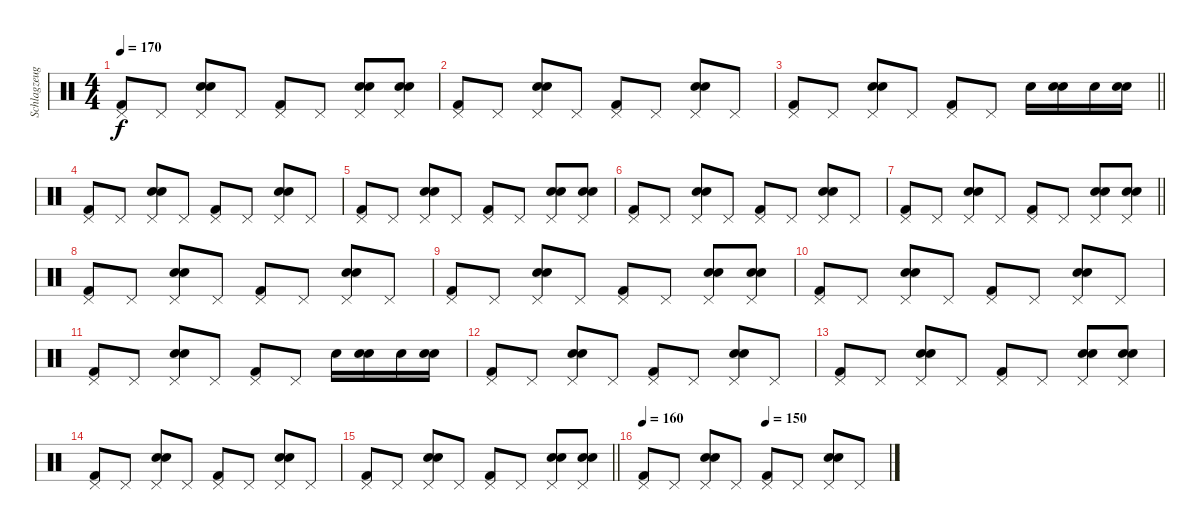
\track ("Schlagzeug" "Schlagzeug") {instrument percussion}
\staff {score}
\articulation defaults
\ts (4 4)
\tempo 170
\clef neutral
\ks c
("Pedal Hi-Hat (hit)" "Kick (hit) 2").8{dy f} "Pedal Hi-Hat (hit)".8 ("Pedal Hi-Hat (hit)" "Snare (hit) 2" "Snare (hit) 2").8 "Pedal Hi-Hat (hit)".8 ("Pedal Hi-Hat (hit)" "Kick (hit) 2").8 "Pedal Hi-Hat (hit)".8 ("Pedal Hi-Hat (hit)" "Snare (hit) 2" "Snare (hit) 2").8 ("Pedal Hi-Hat (hit)" "Snare (hit) 2" "Snare (hit) 2").8 |
("Pedal Hi-Hat (hit)" "Kick (hit) 2").8 "Pedal Hi-Hat (hit)".8 ("Pedal Hi-Hat (hit)" "Snare (hit) 2" "Snare (hit) 2").8 "Pedal Hi-Hat (hit)".8 ("Pedal Hi-Hat (hit)" "Kick (hit) 2").8 "Pedal Hi-Hat (hit)".8 ("Pedal Hi-Hat (hit)" "Snare (hit) 2" "Snare (hit) 2").8 "Pedal Hi-Hat (hit)".8 |
\barLineRight lightlight
("Pedal Hi-Hat (hit)" "Kick (hit) 2").8 "Pedal Hi-Hat (hit)".8 ("Pedal Hi-Hat (hit)" "Snare (hit) 2" "Snare (hit) 2").8 "Pedal Hi-Hat (hit)".8 ("Pedal Hi-Hat (hit)" "Kick (hit) 2").8 "Pedal Hi-Hat (hit)".8 "Snare (hit) 2".16 ("Snare (hit) 2" "Snare (hit) 2").16 "Snare (hit) 2".16 ("Snare (hit) 2" "Snare (hit) 2").16 |
("Pedal Hi-Hat (hit)" "Kick (hit) 2").8 "Pedal Hi-Hat (hit)".8 ("Pedal Hi-Hat (hit)" "Snare (hit) 2" "Snare (hit) 2").8 "Pedal Hi-Hat (hit)".8 ("Pedal Hi-Hat (hit)" "Kick (hit) 2").8 "Pedal Hi-Hat (hit)".8 ("Pedal Hi-Hat (hit)" "Snare (hit) 2" "Snare (hit) 2").8 "Pedal Hi-Hat (hit)".8 |
("Pedal Hi-Hat (hit)" "Kick (hit) 2").8 "Pedal Hi-Hat (hit)".8 ("Pedal Hi-Hat (hit)" "Snare (hit) 2" "Snare (hit) 2").8 "Pedal Hi-Hat (hit)".8 ("Pedal Hi-Hat (hit)" "Kick (hit) 2").8 "Pedal Hi-Hat (hit)".8 ("Pedal Hi-Hat (hit)" "Snare (hit) 2" "Snare (hit) 2").8 ("Pedal Hi-Hat (hit)" "Snare (hit) 2" "Snare (hit) 2").8 |
("Pedal Hi-Hat (hit)" "Kick (hit) 2").8 "Pedal Hi-Hat (hit)".8 ("Pedal Hi-Hat (hit)" "Snare (hit) 2" "Snare (hit) 2").8 "Pedal Hi-Hat (hit)".8 ("Pedal Hi-Hat (hit)" "Kick (hit) 2").8 "Pedal Hi-Hat (hit)".8 ("Pedal Hi-Hat (hit)" "Snare (hit) 2" "Snare (hit) 2").8 "Pedal Hi-Hat (hit)".8 |
\barLineRight lightlight
("Pedal Hi-Hat (hit)" "Kick (hit) 2").8 "Pedal Hi-Hat (hit)".8 ("Pedal Hi-Hat (hit)" "Snare (hit) 2" "Snare (hit) 2").8 "Pedal Hi-Hat (hit)".8 ("Pedal Hi-Hat (hit)" "Kick (hit) 2").8 "Pedal Hi-Hat (hit)".8 ("Pedal Hi-Hat (hit)" "Snare (hit) 2" "Snare (hit) 2").8 ("Pedal Hi-Hat (hit)" "Snare (hit) 2" "Snare (hit) 2").8 |
("Pedal Hi-Hat (hit)" "Kick (hit) 2").8 "Pedal Hi-Hat (hit)".8 ("Pedal Hi-Hat (hit)" "Snare (hit) 2" "Snare (hit) 2").8 "Pedal Hi-Hat (hit)".8 ("Pedal Hi-Hat (hit)" "Kick (hit) 2").8 "Pedal Hi-Hat (hit)".8 ("Pedal Hi-Hat (hit)" "Snare (hit) 2" "Snare (hit) 2").8 "Pedal Hi-Hat (hit)".8 |
("Pedal Hi-Hat (hit)" "Kick (hit) 2").8 "Pedal Hi-Hat (hit)".8 ("Pedal Hi-Hat (hit)" "Snare (hit) 2" "Snare (hit) 2").8 "Pedal Hi-Hat (hit)".8 ("Pedal Hi-Hat (hit)" "Kick (hit) 2").8 "Pedal Hi-Hat (hit)".8 ("Pedal Hi-Hat (hit)" "Snare (hit) 2" "Snare (hit) 2").8 ("Pedal Hi-Hat (hit)" "Snare (hit) 2" "Snare (hit) 2").8 |
("Pedal Hi-Hat (hit)" "Kick (hit) 2").8 "Pedal Hi-Hat (hit)".8 ("Pedal Hi-Hat (hit)" "Snare (hit) 2" "Snare (hit) 2").8 "Pedal Hi-Hat (hit)".8 ("Pedal Hi-Hat (hit)" "Kick (hit) 2").8 "Pedal Hi-Hat (hit)".8 ("Pedal Hi-Hat (hit)" "Snare (hit) 2" "Snare (hit) 2").8 "Pedal Hi-Hat (hit)".8 |
("Pedal Hi-Hat (hit)" "Kick (hit) 2").8 "Pedal Hi-Hat (hit)".8 ("Pedal Hi-Hat (hit)" "Snare (hit) 2" "Snare (hit) 2").8 "Pedal Hi-Hat (hit)".8 ("Pedal Hi-Hat (hit)" "Kick (hit) 2").8 "Pedal Hi-Hat (hit)".8 "Snare (hit) 2".16 ("Snare (hit) 2" "Snare (hit) 2").16 "Snare (hit) 2".16 ("Snare (hit) 2" "Snare (hit) 2").16 |
("Pedal Hi-Hat (hit)" "Kick (hit) 2").8 "Pedal Hi-Hat (hit)".8 ("Pedal Hi-Hat (hit)" "Snare (hit) 2" "Snare (hit) 2").8 "Pedal Hi-Hat (hit)".8 ("Pedal Hi-Hat (hit)" "Kick (hit) 2").8 "Pedal Hi-Hat (hit)".8 ("Pedal Hi-Hat (hit)" "Snare (hit) 2" "Snare (hit) 2").8 "Pedal Hi-Hat (hit)".8 |
("Pedal Hi-Hat (hit)" "Kick (hit) 2").8 "Pedal Hi-Hat (hit)".8 ("Pedal Hi-Hat (hit)" "Snare (hit) 2" "Snare (hit) 2").8 "Pedal Hi-Hat (hit)".8 ("Pedal Hi-Hat (hit)" "Kick (hit) 2").8 "Pedal Hi-Hat (hit)".8 ("Pedal Hi-Hat (hit)" "Snare (hit) 2" "Snare (hit) 2").8 ("Pedal Hi-Hat (hit)" "Snare (hit) 2" "Snare (hit) 2").8 |
("Pedal Hi-Hat (hit)" "Kick (hit) 2").8 "Pedal Hi-Hat (hit)".8 ("Pedal Hi-Hat (hit)" "Snare (hit) 2" "Snare (hit) 2").8 "Pedal Hi-Hat (hit)".8 ("Pedal Hi-Hat (hit)" "Kick (hit) 2").8 "Pedal Hi-Hat (hit)".8 ("Pedal Hi-Hat (hit)" "Snare (hit) 2" "Snare (hit) 2").8 "Pedal Hi-Hat (hit)".8 |
\barLineRight lightlight
("Pedal Hi-Hat (hit)" "Kick (hit) 2").8 "Pedal Hi-Hat (hit)".8 ("Pedal Hi-Hat (hit)" "Snare (hit) 2" "Snare (hit) 2").8 "Pedal Hi-Hat (hit)".8 ("Pedal Hi-Hat (hit)" "Kick (hit) 2").8 "Pedal Hi-Hat (hit)".8 ("Pedal Hi-Hat (hit)" "Snare (hit) 2" "Snare (hit) 2").8 ("Pedal Hi-Hat (hit)" "Snare (hit) 2" "Snare (hit) 2").8 |
\tempo 160
\tempo (150 0.5)
("Pedal Hi-Hat (hit)" "Kick (hit) 2").8 "Pedal Hi-Hat (hit)".8 ("Pedal Hi-Hat (hit)" "Snare (hit) 2" "Snare (hit) 2").8 "Pedal Hi-Hat (hit)".8 ("Pedal Hi-Hat (hit)" "Kick (hit) 2").8 "Pedal Hi-Hat (hit)".8 ("Pedal Hi-Hat (hit)" "Snare (hit) 2" "Snare (hit) 2").8 "Pedal Hi-Hat (hit)".8
